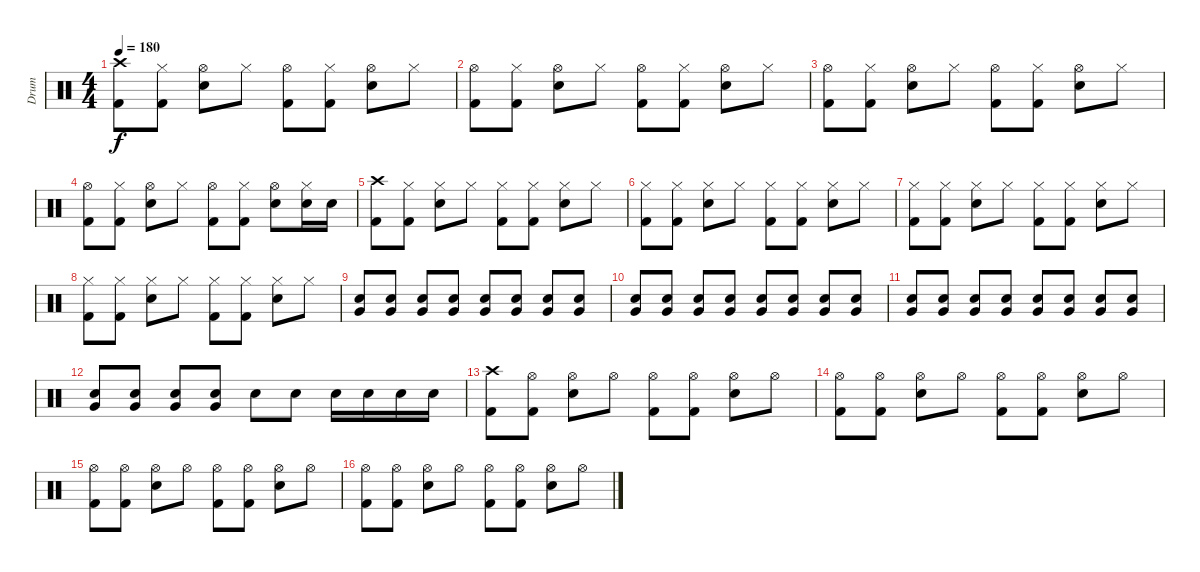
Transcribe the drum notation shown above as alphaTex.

\track ("Drum" "Drum") {instrument percussion}
\staff {score}
\articulation defaults
\ts (4 4)
\tempo 180
\clef neutral
\ks c
("Crash high (hit)" "Kick (hit) 2").8{dy f} ("Hi-Hat (closed)" "Kick (hit) 2").8 ("Hi-Hat (open)" "Electric Snare (hit)").8 "Hi-Hat (closed)".8 ("Hi-Hat (open)" "Kick (hit) 2").8 ("Hi-Hat (closed)" "Kick (hit) 2").8 ("Hi-Hat (open)" "Electric Snare (hit)").8 "Hi-Hat (closed)".8 |
("Hi-Hat (open)" "Kick (hit) 2").8 ("Hi-Hat (closed)" "Kick (hit) 2").8 ("Hi-Hat (open)" "Electric Snare (hit)").8 "Hi-Hat (closed)".8 ("Hi-Hat (open)" "Kick (hit) 2").8 ("Hi-Hat (closed)" "Kick (hit) 2").8 ("Hi-Hat (open)" "Electric Snare (hit)").8 "Hi-Hat (closed)".8 |
("Hi-Hat (open)" "Kick (hit) 2").8 ("Hi-Hat (closed)" "Kick (hit) 2").8 ("Hi-Hat (open)" "Electric Snare (hit)").8 "Hi-Hat (closed)".8 ("Hi-Hat (open)" "Kick (hit) 2").8 ("Hi-Hat (closed)" "Kick (hit) 2").8 ("Hi-Hat (open)" "Electric Snare (hit)").8 "Hi-Hat (closed)".8 |
("Hi-Hat (open)" "Kick (hit) 2").8 ("Hi-Hat (closed)" "Kick (hit) 2").8 ("Hi-Hat (open)" "Electric Snare (hit)").8 "Hi-Hat (closed)".8 ("Hi-Hat (open)" "Kick (hit) 2").8 ("Hi-Hat (closed)" "Kick (hit) 2").8 ("Hi-Hat (open)" "Electric Snare (hit)").8 ("Hi-Hat (closed)" "Electric Snare (hit)").16 "Electric Snare (hit)".16 |
("Crash high (hit)" "Kick (hit) 2").8 ("Hi-Hat (closed)" "Kick (hit) 2").8 ("Hi-Hat (closed)" "Electric Snare (hit)").8 "Hi-Hat (closed)".8 ("Hi-Hat (closed)" "Kick (hit) 2").8 ("Hi-Hat (closed)" "Kick (hit) 2").8 ("Hi-Hat (closed)" "Electric Snare (hit)").8 "Hi-Hat (closed)".8 |
("Hi-Hat (closed)" "Kick (hit) 2").8 ("Hi-Hat (closed)" "Kick (hit) 2").8 ("Hi-Hat (closed)" "Electric Snare (hit)").8 "Hi-Hat (closed)".8 ("Hi-Hat (closed)" "Kick (hit) 2").8 ("Hi-Hat (closed)" "Kick (hit) 2").8 ("Hi-Hat (closed)" "Electric Snare (hit)").8 "Hi-Hat (closed)".8 |
("Hi-Hat (closed)" "Kick (hit) 2").8 ("Hi-Hat (closed)" "Kick (hit) 2").8 ("Hi-Hat (closed)" "Electric Snare (hit)").8 "Hi-Hat (closed)".8 ("Hi-Hat (closed)" "Kick (hit) 2").8 ("Hi-Hat (closed)" "Kick (hit) 2").8 ("Hi-Hat (closed)" "Electric Snare (hit)").8 "Hi-Hat (closed)".8 |
("Hi-Hat (closed)" "Kick (hit) 2").8 ("Hi-Hat (closed)" "Kick (hit) 2").8 ("Hi-Hat (closed)" "Electric Snare (hit)").8 "Hi-Hat (closed)".8 ("Hi-Hat (closed)" "Kick (hit) 2").8 ("Hi-Hat (closed)" "Kick (hit) 2").8 ("Hi-Hat (closed)" "Electric Snare (hit)").8 "Hi-Hat (closed)".8 |
("Very Low Tom (hit)" "Electric Snare (hit)").8 ("Very Low Tom (hit)" "Electric Snare (hit)").8 ("Very Low Tom (hit)" "Electric Snare (hit)").8 ("Very Low Tom (hit)" "Electric Snare (hit)").8 ("Very Low Tom (hit)" "Electric Snare (hit)").8 ("Very Low Tom (hit)" "Electric Snare (hit)").8 ("Very Low Tom (hit)" "Electric Snare (hit)").8 ("Very Low Tom (hit)" "Electric Snare (hit)").8 |
("Very Low Tom (hit)" "Electric Snare (hit)").8 ("Very Low Tom (hit)" "Electric Snare (hit)").8 ("Very Low Tom (hit)" "Electric Snare (hit)").8 ("Very Low Tom (hit)" "Electric Snare (hit)").8 ("Very Low Tom (hit)" "Electric Snare (hit)").8 ("Very Low Tom (hit)" "Electric Snare (hit)").8 ("Very Low Tom (hit)" "Electric Snare (hit)").8 ("Very Low Tom (hit)" "Electric Snare (hit)").8 |
("Very Low Tom (hit)" "Electric Snare (hit)").8 ("Very Low Tom (hit)" "Electric Snare (hit)").8 ("Very Low Tom (hit)" "Electric Snare (hit)").8 ("Very Low Tom (hit)" "Electric Snare (hit)").8 ("Very Low Tom (hit)" "Electric Snare (hit)").8 ("Very Low Tom (hit)" "Electric Snare (hit)").8 ("Very Low Tom (hit)" "Electric Snare (hit)").8 ("Very Low Tom (hit)" "Electric Snare (hit)").8 |
("Very Low Tom (hit)" "Electric Snare (hit)").8 ("Very Low Tom (hit)" "Electric Snare (hit)").8 ("Very Low Tom (hit)" "Electric Snare (hit)").8 ("Very Low Tom (hit)" "Electric Snare (hit)").8 "Electric Snare (hit)".8 "Electric Snare (hit)".8 "Electric Snare (hit)".16 "Electric Snare (hit)".16 "Electric Snare (hit)".16 "Electric Snare (hit)".16 |
("Crash high (hit)" "Kick (hit) 2").8 ("Hi-Hat (open)" "Kick (hit) 2").8 ("Hi-Hat (open)" "Electric Snare (hit)").8 "Hi-Hat (open)".8 ("Hi-Hat (open)" "Kick (hit) 2").8 ("Hi-Hat (open)" "Kick (hit) 2").8 ("Hi-Hat (open)" "Electric Snare (hit)").8 "Hi-Hat (open)".8 |
("Hi-Hat (open)" "Kick (hit) 2").8 ("Hi-Hat (open)" "Kick (hit) 2").8 ("Hi-Hat (open)" "Electric Snare (hit)").8 "Hi-Hat (open)".8 ("Hi-Hat (open)" "Kick (hit) 2").8 ("Hi-Hat (open)" "Kick (hit) 2").8 ("Hi-Hat (open)" "Electric Snare (hit)").8 "Hi-Hat (open)".8 |
("Hi-Hat (open)" "Kick (hit) 2").8 ("Hi-Hat (open)" "Kick (hit) 2").8 ("Hi-Hat (open)" "Electric Snare (hit)").8 "Hi-Hat (open)".8 ("Hi-Hat (open)" "Kick (hit) 2").8 ("Hi-Hat (open)" "Kick (hit) 2").8 ("Hi-Hat (open)" "Electric Snare (hit)").8 "Hi-Hat (open)".8 |
("Hi-Hat (open)" "Kick (hit) 2").8 ("Hi-Hat (open)" "Kick (hit) 2").8 ("Hi-Hat (open)" "Electric Snare (hit)").8 "Hi-Hat (open)".8 ("Hi-Hat (open)" "Kick (hit) 2").8 ("Hi-Hat (open)" "Kick (hit) 2").8 ("Hi-Hat (open)" "Electric Snare (hit)").8 "Hi-Hat (open)".8
